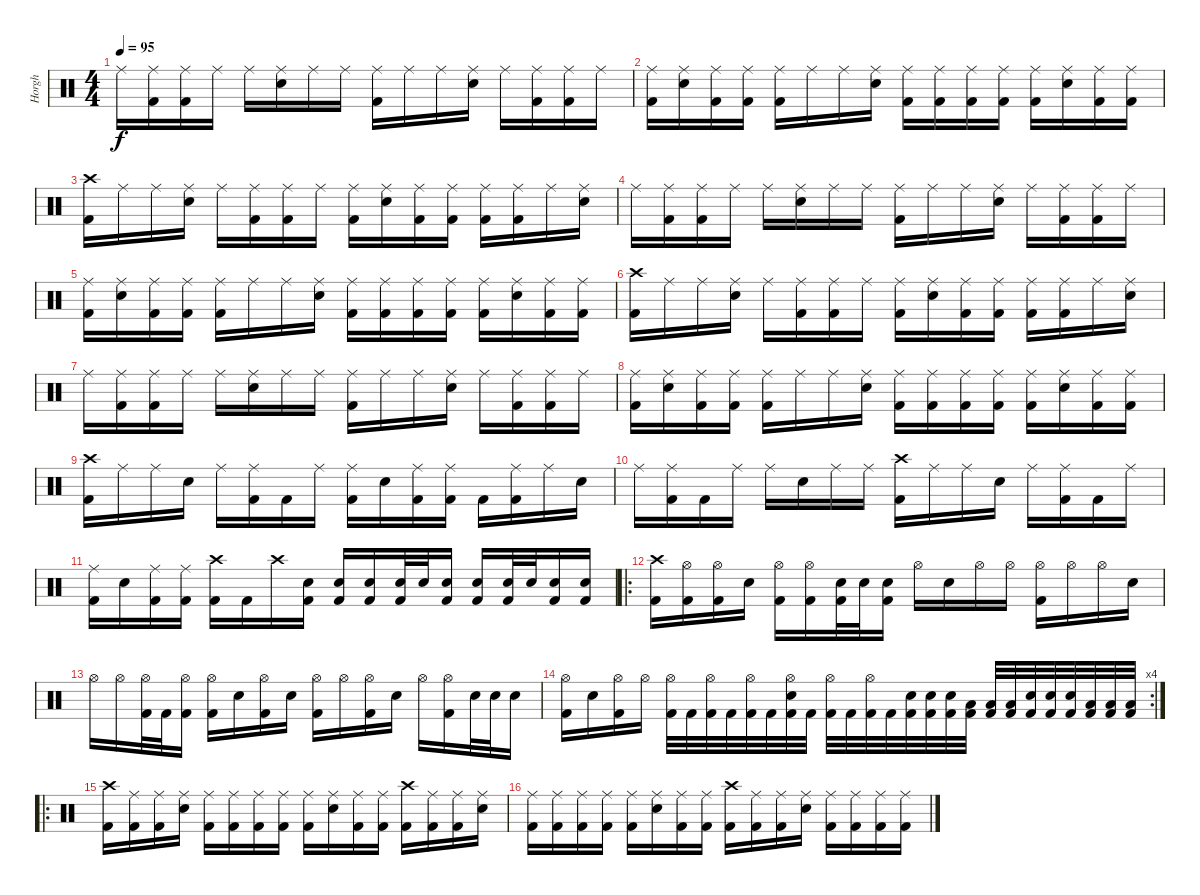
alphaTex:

\track ("Horgh" "Horgh") {instrument percussion}
\staff {score}
\articulation defaults
\ts (4 4)
\tempo 95
\clef neutral
\ks c "Ride (middle)".16{dy f}
("Ride (middle)" "Kick (hit) 2").16 ("Ride (middle)" "Kick (hit) 2").16 "Ride (middle)".16 "Ride (middle)".16 ("Ride (middle)" "Snare (hit) 2").16 "Ride (middle)".16 "Ride (middle)".16 ("Ride (middle)" "Kick (hit) 2").16 "Ride (middle)".16 "Ride (middle)".16 ("Ride (middle)" "Snare (hit) 2").16 "Ride (middle)".16 ("Ride (middle)" "Kick (hit) 2").16 ("Ride (middle)" "Kick (hit) 2").16 "Ride (middle)".16 |
("Ride (middle)" "Kick (hit) 2").16 ("Ride (middle)" "Snare (hit) 2").16 ("Ride (middle)" "Kick (hit) 2").16 ("Ride (middle)" "Kick (hit) 2").16 ("Ride (middle)" "Kick (hit) 2").16 "Ride (middle)".16 "Ride (middle)".16 ("Ride (middle)" "Snare (hit) 2").16 ("Ride (middle)" "Kick (hit) 2").16 ("Ride (middle)" "Kick (hit) 2").16 ("Ride (middle)" "Kick (hit) 2").16 ("Ride (middle)" "Kick (hit) 2").16 ("Ride (middle)" "Kick (hit) 2").16 ("Ride (middle)" "Snare (hit) 2").16 ("Ride (middle)" "Kick (hit) 2").16 ("Ride (middle)" "Kick (hit) 2").16 |
("Crash high (hit)" "Kick (hit) 2").16 "Ride (middle)".16 "Ride (middle)".16 ("Ride (middle)" "Snare (hit) 2").16 "Ride (middle)".16 ("Ride (middle)" "Kick (hit) 2").16 ("Ride (middle)" "Kick (hit) 2").16 "Ride (middle)".16 ("Ride (middle)" "Kick (hit) 2").16 ("Ride (middle)" "Snare (hit) 2").16 ("Ride (middle)" "Kick (hit) 2").16 ("Ride (middle)" "Kick (hit) 2").16 ("Ride (middle)" "Kick (hit) 2").16 ("Ride (middle)" "Kick (hit) 2").16 "Ride (middle)".16 ("Ride (middle)" "Snare (hit) 2").16 |
"Ride (middle)".16 ("Ride (middle)" "Kick (hit) 2").16 ("Ride (middle)" "Kick (hit) 2").16 "Ride (middle)".16 "Ride (middle)".16 ("Ride (middle)" "Snare (hit) 2").16 "Ride (middle)".16 "Ride (middle)".16 ("Ride (middle)" "Kick (hit) 2").16 "Ride (middle)".16 "Ride (middle)".16 ("Ride (middle)" "Snare (hit) 2").16 "Ride (middle)".16 ("Ride (middle)" "Kick (hit) 2").16 ("Ride (middle)" "Kick (hit) 2").16 "Ride (middle)".16 |
("Ride (middle)" "Kick (hit) 2").16 ("Ride (middle)" "Snare (hit) 2").16 ("Ride (middle)" "Kick (hit) 2").16 ("Ride (middle)" "Kick (hit) 2").16 ("Ride (middle)" "Kick (hit) 2").16 "Ride (middle)".16 "Ride (middle)".16 ("Ride (middle)" "Snare (hit) 2").16 ("Ride (middle)" "Kick (hit) 2").16 ("Ride (middle)" "Kick (hit) 2").16 ("Ride (middle)" "Kick (hit) 2").16 ("Ride (middle)" "Kick (hit) 2").16 ("Ride (middle)" "Kick (hit) 2").16 ("Ride (middle)" "Snare (hit) 2").16 ("Ride (middle)" "Kick (hit) 2").16 ("Ride (middle)" "Kick (hit) 2").16 |
("Crash high (hit)" "Kick (hit) 2").16 "Ride (middle)".16 "Ride (middle)".16 ("Ride (middle)" "Snare (hit) 2").16 "Ride (middle)".16 ("Ride (middle)" "Kick (hit) 2").16 ("Ride (middle)" "Kick (hit) 2").16 "Ride (middle)".16 ("Ride (middle)" "Kick (hit) 2").16 ("Ride (middle)" "Snare (hit) 2").16 ("Ride (middle)" "Kick (hit) 2").16 ("Ride (middle)" "Kick (hit) 2").16 ("Ride (middle)" "Kick (hit) 2").16 ("Ride (middle)" "Kick (hit) 2").16 "Ride (middle)".16 ("Ride (middle)" "Snare (hit) 2").16 |
"Ride (middle)".16 ("Ride (middle)" "Kick (hit) 2").16 ("Ride (middle)" "Kick (hit) 2").16 "Ride (middle)".16 "Ride (middle)".16 ("Ride (middle)" "Snare (hit) 2").16 "Ride (middle)".16 "Ride (middle)".16 ("Ride (middle)" "Kick (hit) 2").16 "Ride (middle)".16 "Ride (middle)".16 ("Ride (middle)" "Snare (hit) 2").16 "Ride (middle)".16 ("Ride (middle)" "Kick (hit) 2").16 ("Ride (middle)" "Kick (hit) 2").16 "Ride (middle)".16 |
("Ride (middle)" "Kick (hit) 2").16 ("Ride (middle)" "Snare (hit) 2").16 ("Ride (middle)" "Kick (hit) 2").16 ("Ride (middle)" "Kick (hit) 2").16 ("Ride (middle)" "Kick (hit) 2").16 "Ride (middle)".16 "Ride (middle)".16 ("Ride (middle)" "Snare (hit) 2").16 ("Ride (middle)" "Kick (hit) 2").16 ("Ride (middle)" "Kick (hit) 2").16 ("Ride (middle)" "Kick (hit) 2").16 ("Ride (middle)" "Kick (hit) 2").16 ("Ride (middle)" "Kick (hit) 2").16 ("Ride (middle)" "Snare (hit) 2").16 ("Ride (middle)" "Kick (hit) 2").16 ("Ride (middle)" "Kick (hit) 2").16 |
("Crash high (hit)" "Kick (hit) 2").16 "Ride (middle)".16 "Ride (middle)".16 "Snare (hit) 2".16 "Ride (middle)".16 ("Ride (middle)" "Kick (hit) 2").16 "Kick (hit) 2".16 "Ride (middle)".16 ("Ride (middle)" "Kick (hit) 2").16 "Snare (hit) 2".16 ("Ride (middle)" "Kick (hit) 2").16 ("Ride (middle)" "Kick (hit) 2").16 "Kick (hit) 2".16 ("Ride (middle)" "Kick (hit) 2").16 "Ride (middle)".16 "Snare (hit) 2".16 |
"Ride (middle)".16 ("Ride (middle)" "Kick (hit) 2").16 "Kick (hit) 2".16 "Ride (middle)".16 "Ride (middle)".16 "Snare (hit) 2".16 "Ride (middle)".16 "Ride (middle)".16 ("Crash high (hit)" "Kick (hit) 2").16 "Ride (middle)".16 "Ride (middle)".16 "Snare (hit) 2".16 "Ride (middle)".16 ("Ride (middle)" "Kick (hit) 2").16 "Kick (hit) 2".16 "Ride (middle)".16 |
("Ride (middle)" "Kick (hit) 2").16 "Snare (hit) 2".16 ("Ride (middle)" "Kick (hit) 2").16 ("Ride (middle)" "Kick (hit) 2").16 ("Crash high (hit)" "Kick (hit) 2").16 "Kick (hit) 2".16 "Crash high (hit)".16 ("Snare (hit) 2" "Kick (hit) 2").16 ("Snare (hit) 2" "Kick (hit) 2").16 ("Snare (hit) 2" "Kick (hit) 2").16 ("Snare (hit) 2" "Kick (hit) 2").32 "Snare (hit) 2".32 ("Snare (hit) 2" "Kick (hit) 2").16 ("Snare (hit) 2" "Kick (hit) 2").16 ("Snare (hit) 2" "Kick (hit) 2").32 "Snare (hit) 2".32 ("Snare (hit) 2" "Kick (hit) 2").16 ("Snare (hit) 2" "Kick (hit) 2").16 |
\ro
("Crash high (hit)" "Kick (hit) 2").16 ("Hi-Hat (open)" "Kick (hit) 2").16 ("Hi-Hat (open)" "Kick (hit) 2").16 "Snare (hit) 2".16 ("Hi-Hat (open)" "Kick (hit) 2").16 ("Hi-Hat (open)" "Kick (hit) 2").16 ("Snare (hit) 2" "Kick (hit) 2").32 "Snare (hit) 2".32 ("Snare (hit) 2" "Kick (hit) 2").16 "Hi-Hat (open)".16 "Snare (hit) 2".16 "Hi-Hat (open)".16 "Hi-Hat (open)".16 ("Hi-Hat (open)" "Kick (hit) 2").16 "Hi-Hat (open)".16 "Hi-Hat (open)".16 "Snare (hit) 2".16 |
"Hi-Hat (open)".16 "Hi-Hat (open)".16 ("Hi-Hat (open)" "Kick (hit) 2").32 "Kick (hit) 2".32 ("Hi-Hat (open)" "Kick (hit) 2").16 ("Hi-Hat (open)" "Kick (hit) 2").16 "Snare (hit) 2".16 ("Hi-Hat (open)" "Kick (hit) 2").16 "Snare (hit) 2".16 ("Hi-Hat (open)" "Kick (hit) 2").16 "Hi-Hat (open)".16 ("Hi-Hat (open)" "Kick (hit) 2").16 "Snare (hit) 2".16 "Hi-Hat (open)".16 ("Hi-Hat (open)" "Kick (hit) 2").16 "Snare (hit) 2".32 "Snare (hit) 2".32 "Snare (hit) 2".16 |
\rc 4
("Hi-Hat (open)" "Kick (hit) 2").16 "Snare (hit) 2".16 ("Hi-Hat (open)" "Kick (hit) 2").16 "Hi-Hat (open)".16 ("Hi-Hat (open)" "Kick (hit) 2").32 "Kick (hit) 2".32 ("Hi-Hat (open)" "Kick (hit) 2").32 "Kick (hit) 2".32 ("Hi-Hat (open)" "Kick (hit) 2").32 "Kick (hit) 2".32 ("Hi-Hat (open)" "Snare (hit) 2" "Kick (hit) 2").32 "Kick (hit) 2".32 ("Hi-Hat (open)" "Kick (hit) 2").32 "Kick (hit) 2".32 ("Hi-Hat (open)" "Kick (hit) 2").32 "Kick (hit) 2".32 ("Snare (hit) 2" "Kick (hit) 2").32 ("Snare (hit) 2" "Kick (hit) 2").32 ("Snare (hit) 2" "Kick (hit) 2").32 ("Low Tom (hit)" "Kick (hit) 2").32 ("Low Tom (hit)" "Kick (hit) 2").32 ("Low Tom (hit)" "Kick (hit) 2").32 ("Snare (hit) 2" "Kick (hit) 2").32 ("Snare (hit) 2" "Kick (hit) 2").32 ("Snare (hit) 2" "Kick (hit) 2").32 ("Low Tom (hit)" "Kick (hit) 2").32 ("Low Tom (hit)" "Kick (hit) 2").32 ("Low Tom (hit)" "Kick (hit) 2").32 |
\ro
("Crash high (hit)" "Kick (hit) 2").16 ("Ride (middle)" "Kick (hit) 2").16 ("Ride (middle)" "Kick (hit) 2").16 ("Ride (middle)" "Snare (hit) 2").16 ("Ride (middle)" "Kick (hit) 2").16 ("Ride (middle)" "Kick (hit) 2").16 ("Ride (middle)" "Kick (hit) 2").16 ("Ride (middle)" "Kick (hit) 2").16 ("Ride (middle)" "Kick (hit) 2").16 ("Ride (middle)" "Snare (hit) 2").16 ("Ride (middle)" "Kick (hit) 2").16 ("Ride (middle)" "Kick (hit) 2").16 ("Crash high (hit)" "Kick (hit) 2").16 ("Ride (middle)" "Kick (hit) 2").16 ("Ride (middle)" "Kick (hit) 2").16 ("Ride (middle)" "Snare (hit) 2").16 |
("Ride (middle)" "Kick (hit) 2").16 ("Ride (middle)" "Kick (hit) 2").16 ("Ride (middle)" "Kick (hit) 2").16 ("Ride (middle)" "Kick (hit) 2").16 ("Ride (middle)" "Kick (hit) 2").16 ("Ride (middle)" "Snare (hit) 2").16 ("Ride (middle)" "Kick (hit) 2").16 ("Ride (middle)" "Kick (hit) 2").16 ("Crash high (hit)" "Kick (hit) 2").16 ("Ride (middle)" "Kick (hit) 2").16 ("Ride (middle)" "Kick (hit) 2").16 ("Ride (middle)" "Snare (hit) 2").16 ("Ride (middle)" "Kick (hit) 2").16 ("Ride (middle)" "Kick (hit) 2").16 ("Ride (middle)" "Kick (hit) 2").16 ("Ride (middle)" "Kick (hit) 2").16
